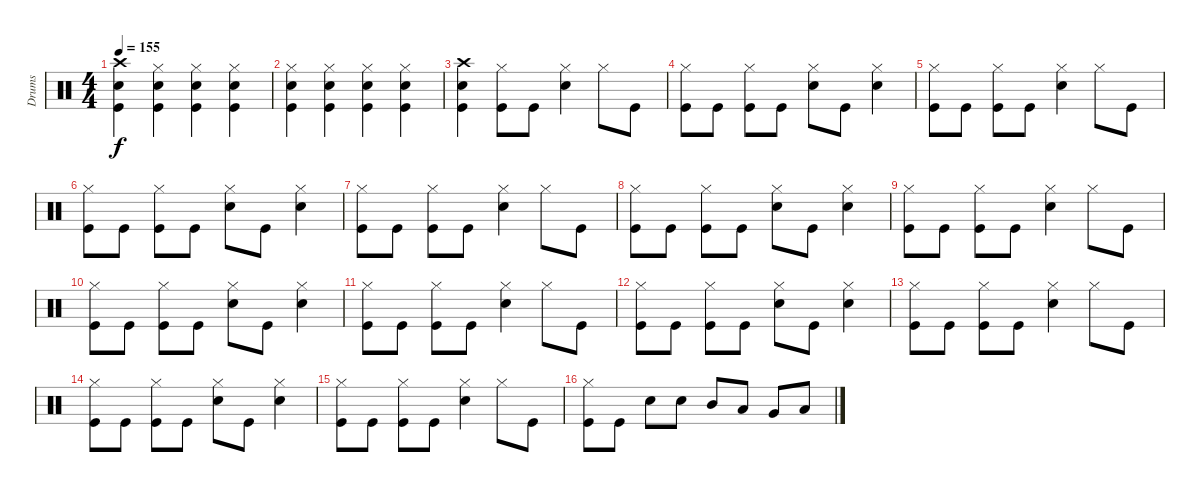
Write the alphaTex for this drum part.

\track ("Drums" "Drums") {instrument percussion}
\staff {score}
\articulation defaults
\ts (4 4)
\tempo 155
\clef neutral
\ks c
("Crash high (hit)" "Snare (hit) 2" "Kick (hit)").4{dy f} ("Hi-Hat (closed)" "Snare (hit) 2" "Kick (hit)").4 ("Hi-Hat (closed)" "Snare (hit) 2" "Kick (hit)").4 ("Hi-Hat (closed)" "Snare (hit) 2" "Kick (hit)").4 |
("Hi-Hat (closed)" "Snare (hit) 2" "Kick (hit)").4 ("Hi-Hat (closed)" "Snare (hit) 2" "Kick (hit)").4 ("Hi-Hat (closed)" "Snare (hit) 2" "Kick (hit)").4 ("Hi-Hat (closed)" "Snare (hit) 2" "Kick (hit)").4 |
("Crash high (hit)" "Snare (hit) 2" "Kick (hit)").4 ("Hi-Hat (closed)" "Kick (hit)").8 "Kick (hit)".8 ("Hi-Hat (closed)" "Snare (hit) 2").4 "Hi-Hat (closed)".8 "Kick (hit)".8 |
("Hi-Hat (closed)" "Kick (hit)").8 "Kick (hit)".8 ("Hi-Hat (closed)" "Kick (hit)").8 "Kick (hit)".8 ("Hi-Hat (closed)" "Snare (hit) 2").8 "Kick (hit)".8 ("Hi-Hat (closed)" "Snare (hit) 2").4 |
("Hi-Hat (closed)" "Kick (hit)").8 "Kick (hit)".8 ("Hi-Hat (closed)" "Kick (hit)").8 "Kick (hit)".8 ("Hi-Hat (closed)" "Snare (hit) 2").4 "Hi-Hat (closed)".8 "Kick (hit)".8 |
("Hi-Hat (closed)" "Kick (hit)").8 "Kick (hit)".8 ("Hi-Hat (closed)" "Kick (hit)").8 "Kick (hit)".8 ("Hi-Hat (closed)" "Snare (hit) 2").8 "Kick (hit)".8 ("Hi-Hat (closed)" "Snare (hit) 2").4 |
("Hi-Hat (closed)" "Kick (hit)").8 "Kick (hit)".8 ("Hi-Hat (closed)" "Kick (hit)").8 "Kick (hit)".8 ("Hi-Hat (closed)" "Snare (hit) 2").4 "Hi-Hat (closed)".8 "Kick (hit)".8 |
("Hi-Hat (closed)" "Kick (hit)").8 "Kick (hit)".8 ("Hi-Hat (closed)" "Kick (hit)").8 "Kick (hit)".8 ("Hi-Hat (closed)" "Snare (hit) 2").8 "Kick (hit)".8 ("Hi-Hat (closed)" "Snare (hit) 2").4 |
("Hi-Hat (closed)" "Kick (hit)").8 "Kick (hit)".8 ("Hi-Hat (closed)" "Kick (hit)").8 "Kick (hit)".8 ("Hi-Hat (closed)" "Snare (hit) 2").4 "Hi-Hat (closed)".8 "Kick (hit)".8 |
("Hi-Hat (closed)" "Kick (hit)").8 "Kick (hit)".8 ("Hi-Hat (closed)" "Kick (hit)").8 "Kick (hit)".8 ("Hi-Hat (closed)" "Snare (hit) 2").8 "Kick (hit)".8 ("Hi-Hat (closed)" "Snare (hit) 2").4 |
("Hi-Hat (closed)" "Kick (hit)").8 "Kick (hit)".8 ("Hi-Hat (closed)" "Kick (hit)").8 "Kick (hit)".8 ("Hi-Hat (closed)" "Snare (hit) 2").4 "Hi-Hat (closed)".8 "Kick (hit)".8 |
("Hi-Hat (closed)" "Kick (hit)").8 "Kick (hit)".8 ("Hi-Hat (closed)" "Kick (hit)").8 "Kick (hit)".8 ("Hi-Hat (closed)" "Snare (hit) 2").8 "Kick (hit)".8 ("Hi-Hat (closed)" "Snare (hit) 2").4 |
("Hi-Hat (closed)" "Kick (hit)").8 "Kick (hit)".8 ("Hi-Hat (closed)" "Kick (hit)").8 "Kick (hit)".8 ("Hi-Hat (closed)" "Snare (hit) 2").4 "Hi-Hat (closed)".8 "Kick (hit)".8 |
("Hi-Hat (closed)" "Kick (hit)").8 "Kick (hit)".8 ("Hi-Hat (closed)" "Kick (hit)").8 "Kick (hit)".8 ("Hi-Hat (closed)" "Snare (hit) 2").8 "Kick (hit)".8 ("Hi-Hat (closed)" "Snare (hit) 2").4 |
("Hi-Hat (closed)" "Kick (hit)").8 "Kick (hit)".8 ("Hi-Hat (closed)" "Kick (hit)").8 "Kick (hit)".8 ("Hi-Hat (closed)" "Snare (hit) 2").4 "Hi-Hat (closed)".8 "Kick (hit)".8 |
("Hi-Hat (closed)" "Kick (hit)").8 "Kick (hit)".8 "Snare (hit) 2".8 "Snare (hit) 2".8 "Mid Tom (hit)".8 "Low Tom (hit)".8 "Very Low Tom (hit)".8 "Low Floor Tom (hit)".8
